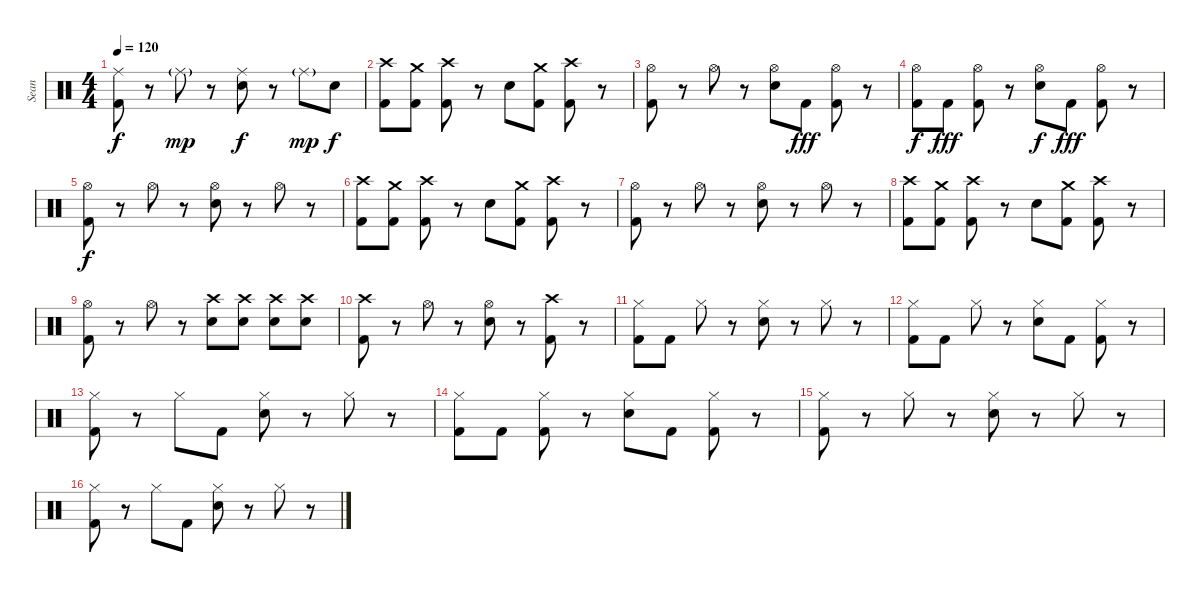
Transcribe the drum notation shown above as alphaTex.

\track ("Sean" "Sean") {instrument percussion}
\staff {score}
\articulation defaults
\ts (4 4)
\tempo 120
\clef neutral
\ks c
("Ride (middle)" "Kick (hit) 2").8{dy f} r.8 "Ride (middle)"{g}.8{dy mp} r.8 ("Ride (middle)" "Snare (hit) 2").8{dy f} r.8 "Ride (middle)"{g}.8{dy mp} "Snare (hit) 2".8{dy f} |
("Crash high (hit)" "Kick (hit) 2").8 ("Crash medium (hit)" "Kick (hit) 2").8 ("Crash high (hit)" "Kick (hit) 2").8 r.8 "Snare (hit) 2".8 ("Crash medium (hit)" "Kick (hit) 2").8 ("Crash high (hit)" "Kick (hit) 2").8 r.8 |
("Hi-Hat (open)" "Kick (hit) 2").8 r.8 "Hi-Hat (open)".8 r.8 ("Hi-Hat (open)" "Snare (hit) 2").8 "Kick (hit) 2".8{dy fff} ("Hi-Hat (open)" "Kick (hit) 2").8 r.8 |
("Hi-Hat (open)" "Kick (hit) 2").8{dy f} "Kick (hit) 2".8{dy fff} ("Hi-Hat (open)" "Kick (hit) 2").8 r.8 ("Hi-Hat (open)" "Snare (hit) 2").8{dy f} "Kick (hit) 2".8{dy fff} ("Hi-Hat (open)" "Kick (hit) 2").8 r.8 |
("Hi-Hat (open)" "Kick (hit) 2").8{dy f} r.8 "Hi-Hat (open)".8 r.8 ("Hi-Hat (open)" "Snare (hit) 2").8 r.8 "Hi-Hat (open)".8 r.8 |
("Crash high (hit)" "Kick (hit) 2").8 ("Crash medium (hit)" "Kick (hit) 2").8 ("Crash high (hit)" "Kick (hit) 2").8 r.8 "Snare (hit) 2".8 ("Crash medium (hit)" "Kick (hit) 2").8 ("Crash high (hit)" "Kick (hit) 2").8 r.8 |
("Hi-Hat (open)" "Kick (hit) 2").8 r.8 "Hi-Hat (open)".8 r.8 ("Hi-Hat (open)" "Snare (hit) 2").8 r.8 "Hi-Hat (open)".8 r.8 |
("Crash high (hit)" "Kick (hit) 2").8 ("Crash medium (hit)" "Kick (hit) 2").8 ("Crash high (hit)" "Kick (hit) 2").8 r.8 "Snare (hit) 2".8 ("Crash medium (hit)" "Kick (hit) 2").8 ("Crash high (hit)" "Kick (hit) 2").8 r.8 |
("Hi-Hat (open)" "Kick (hit) 2").8 r.8 "Hi-Hat (open)".8 r.8 ("Crash high (hit)" "Snare (hit) 2").8 ("Crash high (hit)" "Snare (hit) 2").8 ("Crash high (hit)" "Snare (hit) 2").8 ("Crash high (hit)" "Snare (hit) 2").8 |
("Crash high (hit)" "Kick (hit) 2").8 r.8 "Hi-Hat (open)".8 r.8 ("Hi-Hat (open)" "Snare (hit) 2").8 r.8 ("Crash high (hit)" "Kick (hit) 2").8 r.8 |
("Hi-Hat (closed)" "Kick (hit) 2").8 "Kick (hit) 2".8 "Hi-Hat (closed)".8 r.8 ("Hi-Hat (closed)" "Snare (hit) 2").8 r.8 "Hi-Hat (closed)".8 r.8 |
("Hi-Hat (closed)" "Kick (hit) 2").8 "Kick (hit) 2".8 "Hi-Hat (closed)".8 r.8 ("Hi-Hat (closed)" "Snare (hit) 2").8 "Kick (hit) 2".8 ("Hi-Hat (closed)" "Kick (hit) 2").8 r.8 |
("Hi-Hat (closed)" "Kick (hit) 2").8 r.8 "Hi-Hat (closed)".8 "Kick (hit) 2".8 ("Hi-Hat (closed)" "Snare (hit) 2").8 r.8 "Hi-Hat (closed)".8 r.8 |
("Hi-Hat (closed)" "Kick (hit) 2").8 "Kick (hit) 2".8 ("Hi-Hat (closed)" "Kick (hit) 2").8 r.8 ("Hi-Hat (closed)" "Snare (hit) 2").8 "Kick (hit) 2".8 ("Hi-Hat (closed)" "Kick (hit) 2").8 r.8 |
("Hi-Hat (closed)" "Kick (hit) 2").8 r.8 "Hi-Hat (closed)".8 r.8 ("Hi-Hat (closed)" "Snare (hit) 2").8 r.8 "Hi-Hat (closed)".8 r.8 |
("Hi-Hat (closed)" "Kick (hit) 2").8 r.8 "Hi-Hat (closed)".8 "Kick (hit) 2".8 ("Hi-Hat (closed)" "Snare (hit) 2").8 r.8 "Hi-Hat (closed)".8 r.8
